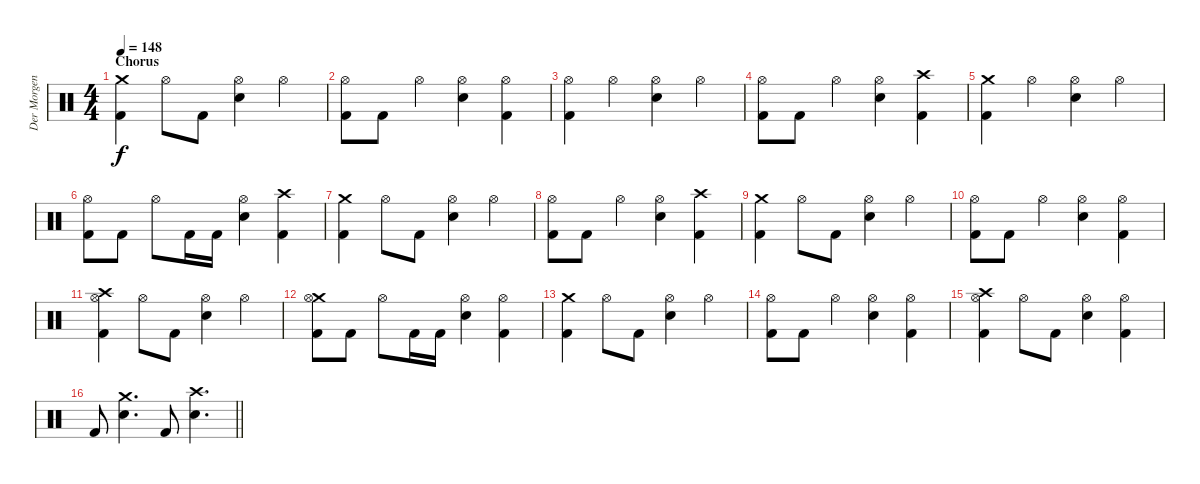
\track ("Der Morgenstern" "Der Morgen") {instrument percussion}
\staff {score}
\articulation defaults
\ts (4 4)
\section ("" "Chorus")
\tempo 148
\clef neutral
\ks c
("Crash medium (hit)" "Kick (hit) 2").4{dy f} "Hi-Hat (open)".8 "Kick (hit) 2".8 ("Hi-Hat (open)" "Electric Snare (hit)").4 "Hi-Hat (open)".4 |
("Hi-Hat (open)" "Kick (hit) 2").8 "Kick (hit) 2".8 "Hi-Hat (open)".4 ("Hi-Hat (open)" "Electric Snare (hit)").4 ("Hi-Hat (open)" "Kick (hit) 2").4 |
("Hi-Hat (open)" "Kick (hit) 2").4 "Hi-Hat (open)".4 ("Hi-Hat (open)" "Electric Snare (hit)").4 "Hi-Hat (open)".4 |
("Hi-Hat (open)" "Kick (hit) 2").8 "Kick (hit) 2".8 "Hi-Hat (open)".4 ("Hi-Hat (open)" "Electric Snare (hit)").4 ("Crash high (hit)" "Kick (hit) 2").4 |
("Crash medium (hit)" "Kick (hit) 2").4 "Hi-Hat (open)".4 ("Hi-Hat (open)" "Electric Snare (hit)").4 "Hi-Hat (open)".4 |
("Hi-Hat (open)" "Kick (hit) 2").8 "Kick (hit) 2".8 "Hi-Hat (open)".8 "Kick (hit) 2".16 "Kick (hit) 2".16 ("Hi-Hat (open)" "Electric Snare (hit)").4 ("Crash high (hit)" "Kick (hit) 2").4 |
("Crash medium (hit)" "Kick (hit) 2").4 "Hi-Hat (open)".8 "Kick (hit) 2".8 ("Hi-Hat (open)" "Electric Snare (hit)").4 "Hi-Hat (open)".4 |
("Hi-Hat (open)" "Kick (hit) 2").8 "Kick (hit) 2".8 "Hi-Hat (open)".4 ("Hi-Hat (open)" "Electric Snare (hit)").4 ("Crash high (hit)" "Kick (hit) 2").4 |
("Crash medium (hit)" "Kick (hit) 2").4 "Hi-Hat (open)".8 "Kick (hit) 2".8 ("Hi-Hat (open)" "Electric Snare (hit)").4 "Hi-Hat (open)".4 |
("Hi-Hat (open)" "Kick (hit) 2").8 "Kick (hit) 2".8 "Hi-Hat (open)".4 ("Hi-Hat (open)" "Electric Snare (hit)").4 ("Hi-Hat (open)" "Kick (hit) 2").4 |
("Crash high (hit)" "Hi-Hat (open)" "Kick (hit) 2").4 "Hi-Hat (open)".8 "Kick (hit) 2".8 ("Hi-Hat (open)" "Electric Snare (hit)").4 "Hi-Hat (open)".4 |
("Crash medium (hit)" "Hi-Hat (open)" "Kick (hit) 2").8 "Kick (hit) 2".8 "Hi-Hat (open)".8 "Kick (hit) 2".16 "Kick (hit) 2".16 ("Hi-Hat (open)" "Electric Snare (hit)").4 ("Hi-Hat (open)" "Kick (hit) 2").4 |
("Crash medium (hit)" "Kick (hit) 2").4 "Hi-Hat (open)".8 "Kick (hit) 2".8 ("Hi-Hat (open)" "Electric Snare (hit)").4 "Hi-Hat (open)".4 |
("Hi-Hat (open)" "Kick (hit) 2").8 "Kick (hit) 2".8 "Hi-Hat (open)".4 ("Hi-Hat (open)" "Electric Snare (hit)").4 ("Hi-Hat (open)" "Kick (hit) 2").4 |
("Crash high (hit)" "Hi-Hat (open)" "Kick (hit) 2").4 "Hi-Hat (open)".8 "Kick (hit) 2".8 ("Hi-Hat (open)" "Electric Snare (hit)").4 ("Hi-Hat (open)" "Kick (hit) 2").4 |
\barLineRight lightlight "Kick (hit) 2".8
("Crash medium (hit)" "Electric Snare (hit)").4{d} "Kick (hit) 2".8 ("Crash high (hit)" "Electric Snare (hit)").4{d}
